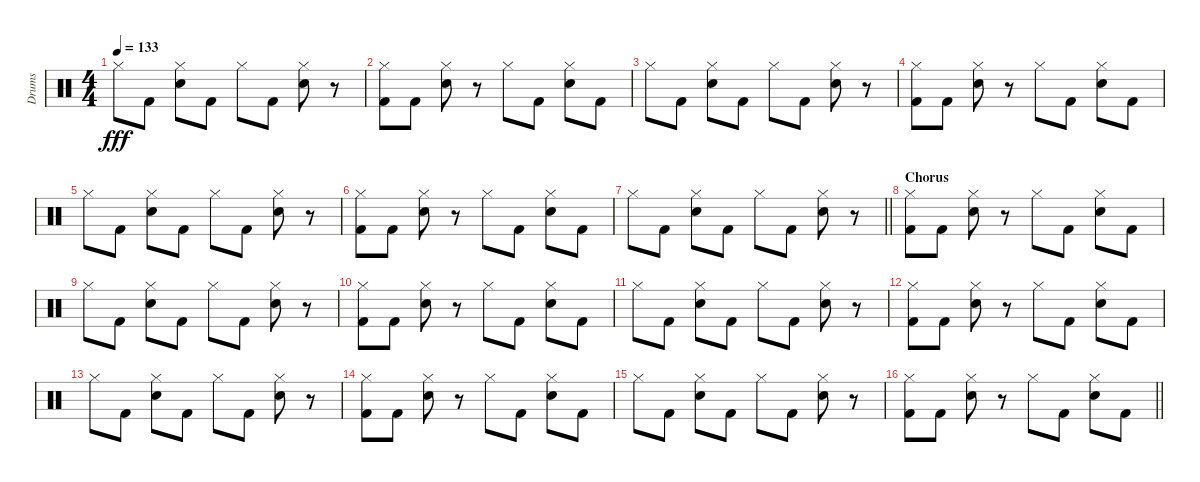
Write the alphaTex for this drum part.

\track ("Drums" "Drums") {instrument percussion}
\staff {score}
\articulation defaults
\ts (4 4)
\tempo 133
\clef neutral
\ks c "Hi-Hat (closed)".8{dy fff} "Kick (hit) 2".8
("Hi-Hat (closed)" "Snare (hit) 2").8 "Kick (hit) 2".8 "Hi-Hat (closed)".8 "Kick (hit) 2".8 ("Hi-Hat (closed)" "Snare (hit) 2").8 r.8 |
("Hi-Hat (closed)" "Kick (hit) 2").8 "Kick (hit) 2".8 ("Hi-Hat (closed)" "Snare (hit) 2").8 r.8 "Hi-Hat (closed)".8 "Kick (hit) 2".8 ("Hi-Hat (closed)" "Snare (hit) 2").8 "Kick (hit) 2".8 |
"Hi-Hat (closed)".8 "Kick (hit) 2".8 ("Hi-Hat (closed)" "Snare (hit) 2").8 "Kick (hit) 2".8 "Hi-Hat (closed)".8 "Kick (hit) 2".8 ("Hi-Hat (closed)" "Snare (hit) 2").8 r.8 |
("Hi-Hat (closed)" "Kick (hit) 2").8 "Kick (hit) 2".8 ("Hi-Hat (closed)" "Snare (hit) 2").8 r.8 "Hi-Hat (closed)".8 "Kick (hit) 2".8 ("Hi-Hat (closed)" "Snare (hit) 2").8 "Kick (hit) 2".8 |
"Hi-Hat (closed)".8 "Kick (hit) 2".8 ("Hi-Hat (closed)" "Snare (hit) 2").8 "Kick (hit) 2".8 "Hi-Hat (closed)".8 "Kick (hit) 2".8 ("Hi-Hat (closed)" "Snare (hit) 2").8 r.8 |
("Hi-Hat (closed)" "Kick (hit) 2").8 "Kick (hit) 2".8 ("Hi-Hat (closed)" "Snare (hit) 2").8 r.8 "Hi-Hat (closed)".8 "Kick (hit) 2".8 ("Hi-Hat (closed)" "Snare (hit) 2").8 "Kick (hit) 2".8 |
\barLineRight lightlight "Hi-Hat (closed)".8 "Kick (hit) 2".8
("Hi-Hat (closed)" "Snare (hit) 2").8 "Kick (hit) 2".8 "Hi-Hat (closed)".8 "Kick (hit) 2".8 ("Hi-Hat (closed)" "Snare (hit) 2").8 r.8 |
\section ("" "Chorus")
("Hi-Hat (closed)" "Kick (hit) 2").8 "Kick (hit) 2".8 ("Hi-Hat (closed)" "Snare (hit) 2").8 r.8 "Hi-Hat (closed)".8 "Kick (hit) 2".8 ("Hi-Hat (closed)" "Snare (hit) 2").8 "Kick (hit) 2".8 |
"Hi-Hat (closed)".8 "Kick (hit) 2".8 ("Hi-Hat (closed)" "Snare (hit) 2").8 "Kick (hit) 2".8 "Hi-Hat (closed)".8 "Kick (hit) 2".8 ("Hi-Hat (closed)" "Snare (hit) 2").8 r.8 |
("Hi-Hat (closed)" "Kick (hit) 2").8 "Kick (hit) 2".8 ("Hi-Hat (closed)" "Snare (hit) 2").8 r.8 "Hi-Hat (closed)".8 "Kick (hit) 2".8 ("Hi-Hat (closed)" "Snare (hit) 2").8 "Kick (hit) 2".8 |
"Hi-Hat (closed)".8 "Kick (hit) 2".8 ("Hi-Hat (closed)" "Snare (hit) 2").8 "Kick (hit) 2".8 "Hi-Hat (closed)".8 "Kick (hit) 2".8 ("Hi-Hat (closed)" "Snare (hit) 2").8 r.8 |
("Hi-Hat (closed)" "Kick (hit) 2").8 "Kick (hit) 2".8 ("Hi-Hat (closed)" "Snare (hit) 2").8 r.8 "Hi-Hat (closed)".8 "Kick (hit) 2".8 ("Hi-Hat (closed)" "Snare (hit) 2").8 "Kick (hit) 2".8 |
"Hi-Hat (closed)".8 "Kick (hit) 2".8 ("Hi-Hat (closed)" "Snare (hit) 2").8 "Kick (hit) 2".8 "Hi-Hat (closed)".8 "Kick (hit) 2".8 ("Hi-Hat (closed)" "Snare (hit) 2").8 r.8 |
("Hi-Hat (closed)" "Kick (hit) 2").8 "Kick (hit) 2".8 ("Hi-Hat (closed)" "Snare (hit) 2").8 r.8 "Hi-Hat (closed)".8 "Kick (hit) 2".8 ("Hi-Hat (closed)" "Snare (hit) 2").8 "Kick (hit) 2".8 |
"Hi-Hat (closed)".8 "Kick (hit) 2".8 ("Hi-Hat (closed)" "Snare (hit) 2").8 "Kick (hit) 2".8 "Hi-Hat (closed)".8 "Kick (hit) 2".8 ("Hi-Hat (closed)" "Snare (hit) 2").8 r.8 |
\barLineRight lightlight
("Hi-Hat (closed)" "Kick (hit) 2").8 "Kick (hit) 2".8 ("Hi-Hat (closed)" "Snare (hit) 2").8 r.8 "Hi-Hat (closed)".8 "Kick (hit) 2".8 ("Hi-Hat (closed)" "Snare (hit) 2").8 "Kick (hit) 2".8
